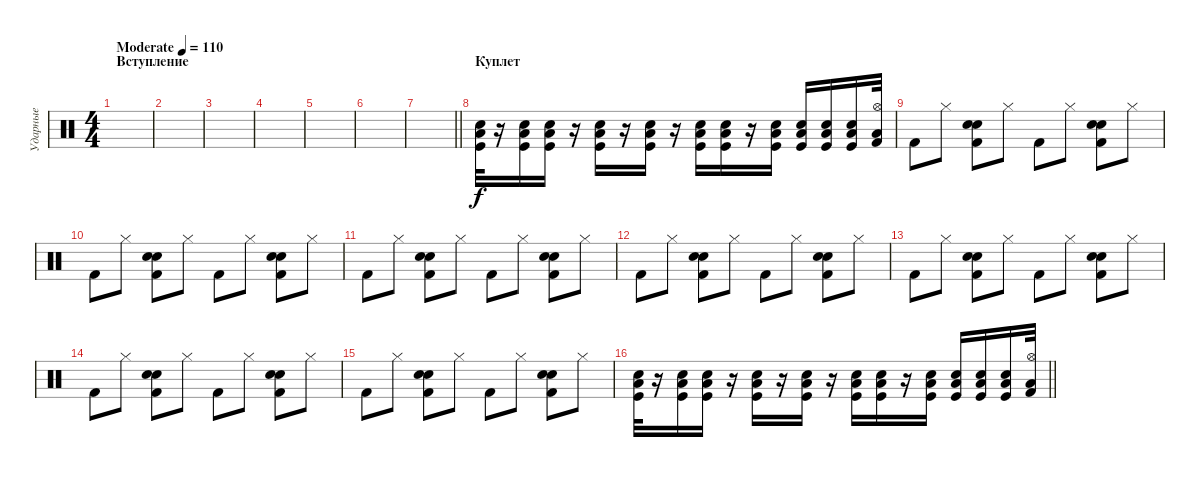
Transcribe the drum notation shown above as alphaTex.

\track ("Ударные" "Ударные") {instrument percussion}
\staff {score}
\articulation defaults
\ts (4 4)
\section ("" "Вступление")
\tempo (110 "Moderate")
\clef neutral
\ks c
|
|
|
|
|
|
\barLineRight lightlight
|
\section ("" "Куплет")
("Low Floor Tom (hit)" "Kick (hit)" "Electric Snare (hit)").32 r.16 ("Low Floor Tom (hit)" "Kick (hit)" "Electric Snare (hit)").16 ("Low Floor Tom (hit)" "Kick (hit)" "Electric Snare (hit)").16 r.16 ("Low Floor Tom (hit)" "Kick (hit)" "Electric Snare (hit)").16 r.16 ("Low Floor Tom (hit)" "Kick (hit)" "Electric Snare (hit)").16 r.16 ("Low Floor Tom (hit)" "Kick (hit)" "Electric Snare (hit)").16 ("Low Floor Tom (hit)" "Kick (hit)" "Electric Snare (hit)").16 r.16 ("Low Floor Tom (hit)" "Kick (hit)" "Electric Snare (hit)").16 ("Low Floor Tom (hit)" "Kick (hit)" "Electric Snare (hit)").16 ("Low Floor Tom (hit)" "Kick (hit)" "Electric Snare (hit)").16 ("Low Floor Tom (hit)" "Kick (hit)" "Electric Snare (hit)").16 ("Low Floor Tom (hit)" "Hi-Hat (open)" "Kick (hit) 2").32 |
"Kick (hit) 2".8 "Hi-Hat (closed)".8 ("Hand Clap (hit)" "Kick (hit) 2" "Electric Snare (hit)").8 "Hi-Hat (closed)".8 "Kick (hit) 2".8 "Hi-Hat (closed)".8 ("Hand Clap (hit)" "Kick (hit) 2" "Electric Snare (hit)").8 "Hi-Hat (closed)".8 |
"Kick (hit) 2".8 "Hi-Hat (closed)".8 ("Hand Clap (hit)" "Kick (hit) 2" "Electric Snare (hit)").8 "Hi-Hat (closed)".8 "Kick (hit) 2".8 "Hi-Hat (closed)".8 ("Hand Clap (hit)" "Kick (hit) 2" "Electric Snare (hit)").8 "Hi-Hat (closed)".8 |
"Kick (hit) 2".8 "Hi-Hat (closed)".8 ("Hand Clap (hit)" "Kick (hit) 2" "Electric Snare (hit)").8 "Hi-Hat (closed)".8 "Kick (hit) 2".8 "Hi-Hat (closed)".8 ("Hand Clap (hit)" "Kick (hit) 2" "Electric Snare (hit)").8 "Hi-Hat (closed)".8 |
"Kick (hit) 2".8 "Hi-Hat (closed)".8 ("Hand Clap (hit)" "Kick (hit) 2" "Electric Snare (hit)").8 "Hi-Hat (closed)".8 "Kick (hit) 2".8 "Hi-Hat (closed)".8 ("Hand Clap (hit)" "Kick (hit) 2" "Electric Snare (hit)").8 "Hi-Hat (closed)".8 |
"Kick (hit) 2".8 "Hi-Hat (closed)".8 ("Hand Clap (hit)" "Kick (hit) 2" "Electric Snare (hit)").8 "Hi-Hat (closed)".8 "Kick (hit) 2".8 "Hi-Hat (closed)".8 ("Hand Clap (hit)" "Kick (hit) 2" "Electric Snare (hit)").8 "Hi-Hat (closed)".8 |
"Kick (hit) 2".8 "Hi-Hat (closed)".8 ("Hand Clap (hit)" "Kick (hit) 2" "Electric Snare (hit)").8 "Hi-Hat (closed)".8 "Kick (hit) 2".8 "Hi-Hat (closed)".8 ("Hand Clap (hit)" "Kick (hit) 2" "Electric Snare (hit)").8 "Hi-Hat (closed)".8 |
"Kick (hit) 2".8 "Hi-Hat (closed)".8 ("Hand Clap (hit)" "Kick (hit) 2" "Electric Snare (hit)").8 "Hi-Hat (closed)".8 "Kick (hit) 2".8 "Hi-Hat (closed)".8 ("Hand Clap (hit)" "Kick (hit) 2" "Electric Snare (hit)").8 "Hi-Hat (closed)".8 |
\barLineRight lightlight
("Low Floor Tom (hit)" "Kick (hit)" "Electric Snare (hit)").32 r.16 ("Low Floor Tom (hit)" "Kick (hit)" "Electric Snare (hit)").16 ("Low Floor Tom (hit)" "Kick (hit)" "Electric Snare (hit)").16 r.16 ("Low Floor Tom (hit)" "Kick (hit)" "Electric Snare (hit)").16 r.16 ("Low Floor Tom (hit)" "Kick (hit)" "Electric Snare (hit)").16 r.16 ("Low Floor Tom (hit)" "Kick (hit)" "Electric Snare (hit)").16 ("Low Floor Tom (hit)" "Kick (hit)" "Electric Snare (hit)").16 r.16 ("Low Floor Tom (hit)" "Kick (hit)" "Electric Snare (hit)").16 ("Low Floor Tom (hit)" "Kick (hit)" "Electric Snare (hit)").16 ("Low Floor Tom (hit)" "Kick (hit)" "Electric Snare (hit)").16 ("Low Floor Tom (hit)" "Kick (hit)" "Electric Snare (hit)").16 ("Low Floor Tom (hit)" "Hi-Hat (open)" "Kick (hit) 2").32
